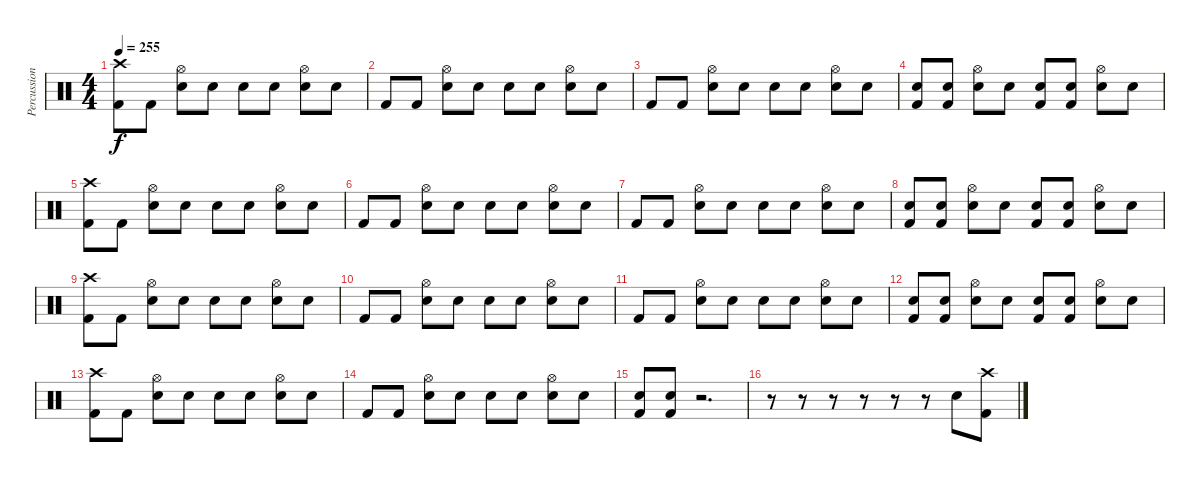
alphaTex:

\track ("Percussion" "Percussion") {instrument percussion}
\staff {score}
\articulation defaults
\ts (4 4)
\tempo 255
\clef neutral
\ks c
("Kick (hit) 2" "Crash high (hit)").8{dy f} "Kick (hit) 2".8 ("Snare (hit) 2" "Hi-Hat (open)").8 "Snare (hit)".8 "Snare (hit)".8 "Snare (hit)".8 ("Snare (hit) 2" "Hi-Hat (open)").8 "Snare (hit)".8 |
"Kick (hit) 2".8 "Kick (hit) 2".8 ("Snare (hit) 2" "Hi-Hat (open)").8 "Snare (hit)".8 "Snare (hit)".8 "Snare (hit)".8 ("Snare (hit) 2" "Hi-Hat (open)").8 "Snare (hit)".8 |
"Kick (hit) 2".8 "Kick (hit) 2".8 ("Snare (hit) 2" "Hi-Hat (open)").8 "Snare (hit)".8 "Snare (hit)".8 "Snare (hit)".8 ("Snare (hit) 2" "Hi-Hat (open)").8 "Snare (hit)".8 |
("Kick (hit) 2" "Snare (hit)").8 ("Kick (hit) 2" "Snare (hit)").8 ("Snare (hit) 2" "Hi-Hat (open)").8 "Snare (hit)".8 ("Kick (hit) 2" "Snare (hit)").8 ("Kick (hit) 2" "Snare (hit)").8 ("Snare (hit) 2" "Hi-Hat (open)").8 "Snare (hit)".8 |
("Kick (hit) 2" "Crash high (hit)").8 "Kick (hit) 2".8 ("Snare (hit) 2" "Hi-Hat (open)").8 "Snare (hit)".8 "Snare (hit)".8 "Snare (hit)".8 ("Snare (hit) 2" "Hi-Hat (open)").8 "Snare (hit)".8 |
"Kick (hit) 2".8 "Kick (hit) 2".8 ("Snare (hit) 2" "Hi-Hat (open)").8 "Snare (hit)".8 "Snare (hit)".8 "Snare (hit)".8 ("Snare (hit) 2" "Hi-Hat (open)").8 "Snare (hit)".8 |
"Kick (hit) 2".8 "Kick (hit) 2".8 ("Snare (hit) 2" "Hi-Hat (open)").8 "Snare (hit)".8 "Snare (hit)".8 "Snare (hit)".8 ("Snare (hit) 2" "Hi-Hat (open)").8 "Snare (hit)".8 |
("Kick (hit) 2" "Snare (hit)").8 ("Kick (hit) 2" "Snare (hit)").8 ("Snare (hit) 2" "Hi-Hat (open)").8 "Snare (hit)".8 ("Kick (hit) 2" "Snare (hit)").8 ("Kick (hit) 2" "Snare (hit)").8 ("Snare (hit) 2" "Hi-Hat (open)").8 "Snare (hit)".8 |
("Kick (hit) 2" "Crash high (hit)").8 "Kick (hit) 2".8 ("Snare (hit) 2" "Hi-Hat (open)").8 "Snare (hit)".8 "Snare (hit)".8 "Snare (hit)".8 ("Snare (hit) 2" "Hi-Hat (open)").8 "Snare (hit)".8 |
"Kick (hit) 2".8 "Kick (hit) 2".8 ("Snare (hit) 2" "Hi-Hat (open)").8 "Snare (hit)".8 "Snare (hit)".8 "Snare (hit)".8 ("Snare (hit) 2" "Hi-Hat (open)").8 "Snare (hit)".8 |
"Kick (hit) 2".8 "Kick (hit) 2".8 ("Snare (hit) 2" "Hi-Hat (open)").8 "Snare (hit)".8 "Snare (hit)".8 "Snare (hit)".8 ("Snare (hit) 2" "Hi-Hat (open)").8 "Snare (hit)".8 |
("Kick (hit) 2" "Snare (hit)").8 ("Kick (hit) 2" "Snare (hit)").8 ("Snare (hit) 2" "Hi-Hat (open)").8 "Snare (hit)".8 ("Kick (hit) 2" "Snare (hit)").8 ("Kick (hit) 2" "Snare (hit)").8 ("Snare (hit) 2" "Hi-Hat (open)").8 "Snare (hit)".8 |
("Kick (hit) 2" "Crash high (hit)").8 "Kick (hit) 2".8 ("Snare (hit) 2" "Hi-Hat (open)").8 "Snare (hit)".8 "Snare (hit)".8 "Snare (hit)".8 ("Snare (hit) 2" "Hi-Hat (open)").8 "Snare (hit)".8 |
"Kick (hit) 2".8 "Kick (hit) 2".8 ("Snare (hit) 2" "Hi-Hat (open)").8 "Snare (hit)".8 "Snare (hit)".8 "Snare (hit)".8 ("Snare (hit) 2" "Hi-Hat (open)").8 "Snare (hit)".8 |
("Kick (hit) 2" "Snare (hit) 2").8 ("Kick (hit) 2" "Snare (hit) 2").8 r.2{d} |
r.8 r.8 r.8 r.8 r.8 r.8 "Snare (hit) 2".8 ("Kick (hit) 2" "Crash high (hit)").8
